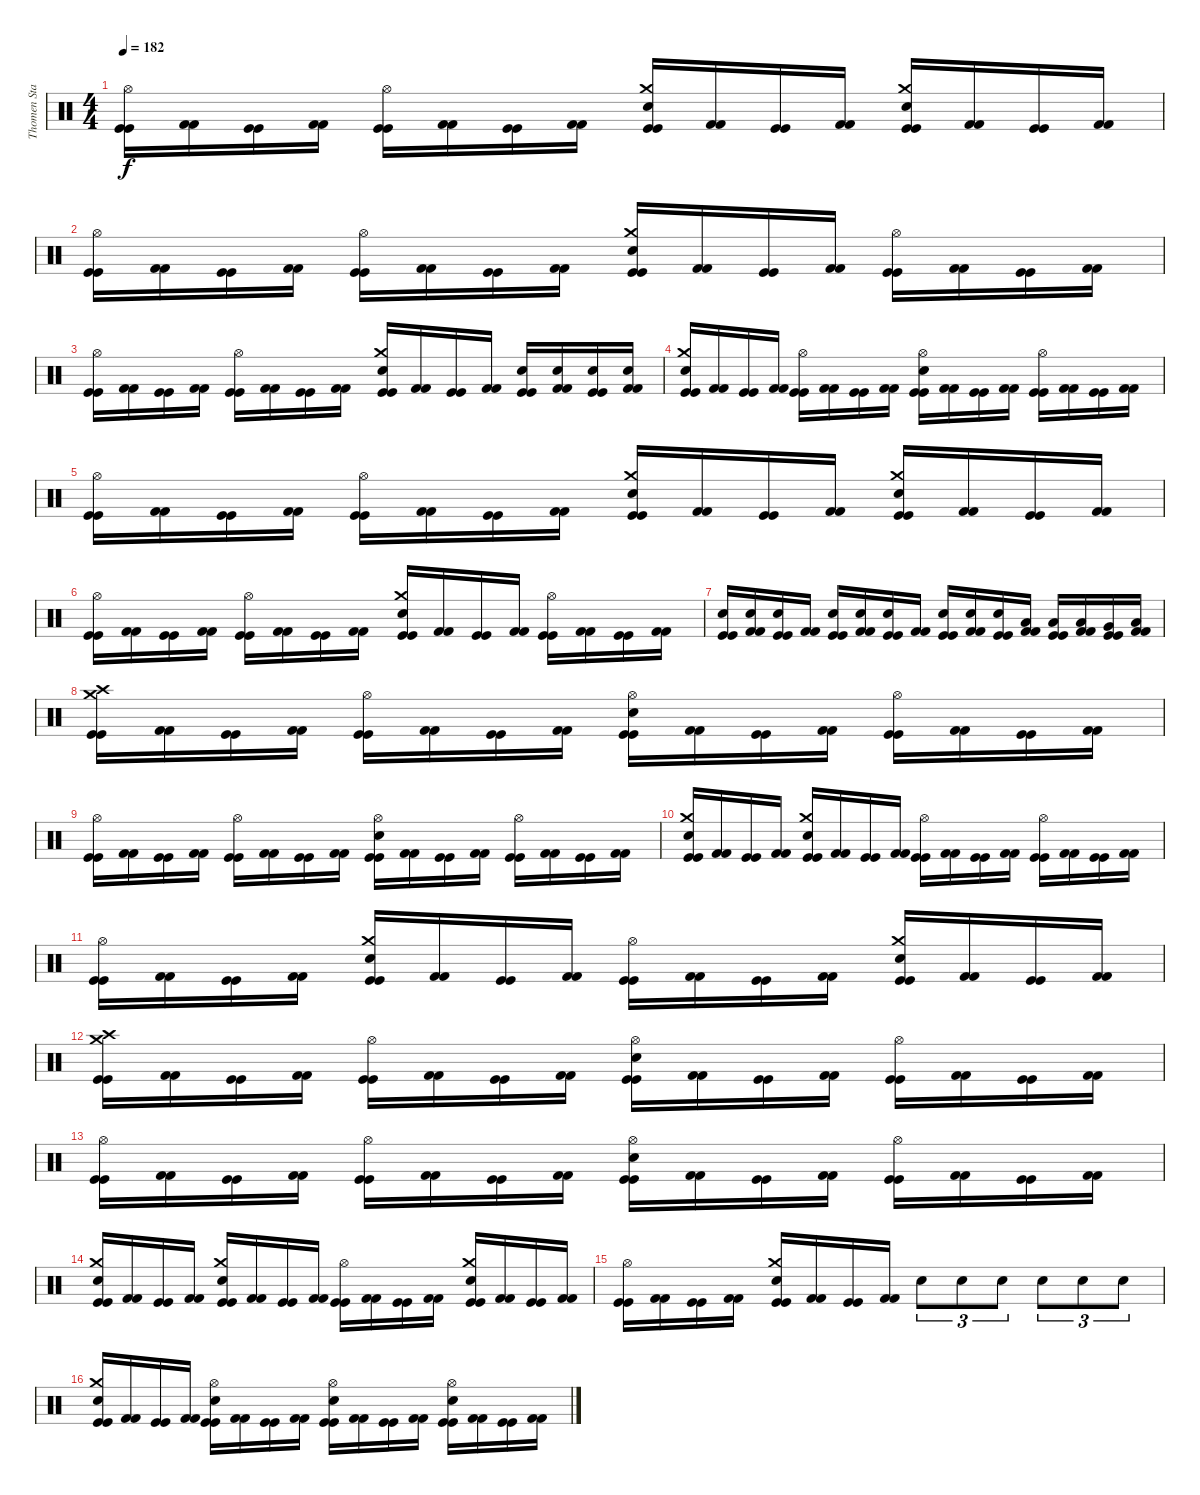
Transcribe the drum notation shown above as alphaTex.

\track ("Thomen Stauch" "Thomen Sta") {instrument percussion}
\staff {score}
\articulation defaults
\ts (4 4)
\tempo 182
\clef neutral
\ks c
("Hi-Hat (open)" "Kick (hit)" "Kick (hit)").16{dy f} ("Kick (hit) 2" "Kick (hit) 2").16 ("Kick (hit)" "Kick (hit)").16 ("Kick (hit) 2" "Kick (hit) 2").16 ("Hi-Hat (open)" "Kick (hit)" "Kick (hit)").16 ("Kick (hit) 2" "Kick (hit) 2").16 ("Kick (hit)" "Kick (hit)").16 ("Kick (hit) 2" "Kick (hit) 2").16 ("Crash medium (hit)" "Snare (hit) 2" "Kick (hit)" "Kick (hit)").16 ("Kick (hit) 2" "Kick (hit) 2").16 ("Kick (hit)" "Kick (hit)").16 ("Kick (hit) 2" "Kick (hit) 2").16 ("Crash medium (hit)" "Snare (hit) 2" "Kick (hit)" "Kick (hit)").16 ("Kick (hit) 2" "Kick (hit) 2").16 ("Kick (hit)" "Kick (hit)").16 ("Kick (hit) 2" "Kick (hit) 2").16 |
("Hi-Hat (open)" "Kick (hit)" "Kick (hit)").16 ("Kick (hit) 2" "Kick (hit) 2").16 ("Kick (hit)" "Kick (hit)").16 ("Kick (hit) 2" "Kick (hit) 2").16 ("Hi-Hat (open)" "Kick (hit)" "Kick (hit)").16 ("Kick (hit) 2" "Kick (hit) 2").16 ("Kick (hit)" "Kick (hit)").16 ("Kick (hit) 2" "Kick (hit) 2").16 ("Crash medium (hit)" "Snare (hit) 2" "Kick (hit)" "Kick (hit)").16 ("Kick (hit) 2" "Kick (hit) 2").16 ("Kick (hit)" "Kick (hit)").16 ("Kick (hit) 2" "Kick (hit) 2").16 ("Hi-Hat (open)" "Kick (hit)" "Kick (hit)").16 ("Kick (hit) 2" "Kick (hit) 2").16 ("Kick (hit)" "Kick (hit)").16 ("Kick (hit) 2" "Kick (hit) 2").16 |
("Hi-Hat (open)" "Kick (hit)" "Kick (hit)").16 ("Kick (hit) 2" "Kick (hit) 2").16 ("Kick (hit)" "Kick (hit)").16 ("Kick (hit) 2" "Kick (hit) 2").16 ("Hi-Hat (open)" "Kick (hit)" "Kick (hit)").16 ("Kick (hit) 2" "Kick (hit) 2").16 ("Kick (hit)" "Kick (hit)").16 ("Kick (hit) 2" "Kick (hit) 2").16 ("Crash medium (hit)" "Snare (hit) 2" "Kick (hit)" "Kick (hit)").16 ("Kick (hit) 2" "Kick (hit) 2").16 ("Kick (hit)" "Kick (hit)").16 ("Kick (hit) 2" "Kick (hit) 2").16 ("Snare (hit) 2" "Kick (hit)" "Kick (hit)").16 ("Snare (hit) 2" "Kick (hit) 2" "Kick (hit) 2").16 ("Snare (hit) 2" "Kick (hit)" "Kick (hit)").16 ("Snare (hit) 2" "Kick (hit) 2" "Kick (hit) 2").16 |
("Crash medium (hit)" "Snare (hit) 2" "Kick (hit)" "Kick (hit)").16 ("Kick (hit) 2" "Kick (hit) 2").16 ("Kick (hit)" "Kick (hit)").16 ("Kick (hit) 2" "Kick (hit) 2").16 ("Hi-Hat (open)" "Kick (hit)" "Kick (hit)").16 ("Kick (hit) 2" "Kick (hit) 2").16 ("Kick (hit)" "Kick (hit)").16 ("Kick (hit) 2" "Kick (hit) 2").16 ("Hi-Hat (open)" "Snare (hit) 2" "Kick (hit)" "Kick (hit)").16 ("Kick (hit) 2" "Kick (hit) 2").16 ("Kick (hit)" "Kick (hit)").16 ("Kick (hit) 2" "Kick (hit) 2").16 ("Hi-Hat (open)" "Kick (hit)" "Kick (hit)").16 ("Kick (hit) 2" "Kick (hit) 2").16 ("Kick (hit)" "Kick (hit)").16 ("Kick (hit) 2" "Kick (hit) 2").16 |
("Hi-Hat (open)" "Kick (hit)" "Kick (hit)").16 ("Kick (hit) 2" "Kick (hit) 2").16 ("Kick (hit)" "Kick (hit)").16 ("Kick (hit) 2" "Kick (hit) 2").16 ("Hi-Hat (open)" "Kick (hit)" "Kick (hit)").16 ("Kick (hit) 2" "Kick (hit) 2").16 ("Kick (hit)" "Kick (hit)").16 ("Kick (hit) 2" "Kick (hit) 2").16 ("Crash medium (hit)" "Snare (hit) 2" "Kick (hit)" "Kick (hit)").16 ("Kick (hit) 2" "Kick (hit) 2").16 ("Kick (hit)" "Kick (hit)").16 ("Kick (hit) 2" "Kick (hit) 2").16 ("Crash medium (hit)" "Snare (hit) 2" "Kick (hit)" "Kick (hit)").16 ("Kick (hit) 2" "Kick (hit) 2").16 ("Kick (hit)" "Kick (hit)").16 ("Kick (hit) 2" "Kick (hit) 2").16 |
("Hi-Hat (open)" "Kick (hit)" "Kick (hit)").16 ("Kick (hit) 2" "Kick (hit) 2").16 ("Kick (hit)" "Kick (hit)").16 ("Kick (hit) 2" "Kick (hit) 2").16 ("Hi-Hat (open)" "Kick (hit)" "Kick (hit)").16 ("Kick (hit) 2" "Kick (hit) 2").16 ("Kick (hit)" "Kick (hit)").16 ("Kick (hit) 2" "Kick (hit) 2").16 ("Crash medium (hit)" "Snare (hit) 2" "Kick (hit)" "Kick (hit)").16 ("Kick (hit) 2" "Kick (hit) 2").16 ("Kick (hit)" "Kick (hit)").16 ("Kick (hit) 2" "Kick (hit) 2").16 ("Hi-Hat (open)" "Kick (hit)" "Kick (hit)").16 ("Kick (hit) 2" "Kick (hit) 2").16 ("Kick (hit)" "Kick (hit)").16 ("Kick (hit) 2" "Kick (hit) 2").16 |
("Snare (hit) 2" "Kick (hit)" "Kick (hit)").16 ("Snare (hit) 2" "Kick (hit) 2" "Kick (hit) 2").16 ("Snare (hit) 2" "Kick (hit)" "Kick (hit)").16 ("Kick (hit) 2" "Kick (hit) 2").16 ("Snare (hit) 2" "Kick (hit)" "Kick (hit)").16 ("Snare (hit) 2" "Kick (hit) 2" "Kick (hit) 2").16 ("Snare (hit) 2" "Kick (hit)" "Kick (hit)").16 ("Kick (hit) 2" "Kick (hit) 2").16 ("Snare (hit) 2" "Kick (hit)" "Kick (hit)").16 ("Snare (hit) 2" "Kick (hit) 2" "Kick (hit) 2").16 ("Snare (hit) 2" "Kick (hit)" "Kick (hit)").16 ("Low Tom (hit)" "Kick (hit) 2" "Kick (hit) 2").16 ("Low Tom (hit)" "Kick (hit)" "Kick (hit)").16 ("Low Tom (hit)" "Kick (hit) 2" "Kick (hit) 2").16 ("Very Low Tom (hit)" "Kick (hit)" "Kick (hit)").16 ("Low Floor Tom (hit)" "Kick (hit) 2" "Kick (hit) 2").16 |
("Crash medium (hit)" "Crash high (hit)" "Kick (hit)" "Kick (hit)").16 ("Kick (hit) 2" "Kick (hit) 2").16 ("Kick (hit)" "Kick (hit)").16 ("Kick (hit) 2" "Kick (hit) 2").16 ("Hi-Hat (open)" "Kick (hit)" "Kick (hit)").16 ("Kick (hit) 2" "Kick (hit) 2").16 ("Kick (hit)" "Kick (hit)").16 ("Kick (hit) 2" "Kick (hit) 2").16 ("Hi-Hat (open)" "Snare (hit) 2" "Kick (hit)" "Kick (hit)").16 ("Kick (hit) 2" "Kick (hit) 2").16 ("Kick (hit)" "Kick (hit)").16 ("Kick (hit) 2" "Kick (hit) 2").16 ("Hi-Hat (open)" "Kick (hit)" "Kick (hit)").16 ("Kick (hit) 2" "Kick (hit) 2").16 ("Kick (hit)" "Kick (hit)").16 ("Kick (hit) 2" "Kick (hit) 2").16 |
("Hi-Hat (open)" "Kick (hit)" "Kick (hit)").16 ("Kick (hit) 2" "Kick (hit) 2").16 ("Kick (hit)" "Kick (hit)").16 ("Kick (hit) 2" "Kick (hit) 2").16 ("Hi-Hat (open)" "Kick (hit)" "Kick (hit)").16 ("Kick (hit) 2" "Kick (hit) 2").16 ("Kick (hit)" "Kick (hit)").16 ("Kick (hit) 2" "Kick (hit) 2").16 ("Hi-Hat (open)" "Snare (hit) 2" "Kick (hit)" "Kick (hit)").16 ("Kick (hit) 2" "Kick (hit) 2").16 ("Kick (hit)" "Kick (hit)").16 ("Kick (hit) 2" "Kick (hit) 2").16 ("Hi-Hat (open)" "Kick (hit)" "Kick (hit)").16 ("Kick (hit) 2" "Kick (hit) 2").16 ("Kick (hit)" "Kick (hit)").16 ("Kick (hit) 2" "Kick (hit) 2").16 |
("Crash medium (hit)" "Snare (hit) 2" "Kick (hit)" "Kick (hit)").16 ("Kick (hit) 2" "Kick (hit) 2").16 ("Kick (hit)" "Kick (hit)").16 ("Kick (hit) 2" "Kick (hit) 2").16 ("Crash medium (hit)" "Snare (hit) 2" "Kick (hit)" "Kick (hit)").16 ("Kick (hit) 2" "Kick (hit) 2").16 ("Kick (hit)" "Kick (hit)").16 ("Kick (hit) 2" "Kick (hit) 2").16 ("Hi-Hat (open)" "Kick (hit)" "Kick (hit)").16 ("Kick (hit) 2" "Kick (hit) 2").16 ("Kick (hit)" "Kick (hit)").16 ("Kick (hit) 2" "Kick (hit) 2").16 ("Hi-Hat (open)" "Kick (hit)" "Kick (hit)").16 ("Kick (hit) 2" "Kick (hit) 2").16 ("Kick (hit)" "Kick (hit)").16 ("Kick (hit) 2" "Kick (hit) 2").16 |
("Hi-Hat (open)" "Kick (hit)" "Kick (hit)").16 ("Kick (hit) 2" "Kick (hit) 2").16 ("Kick (hit)" "Kick (hit)").16 ("Kick (hit) 2" "Kick (hit) 2").16 ("Crash medium (hit)" "Snare (hit) 2" "Kick (hit)" "Kick (hit)").16 ("Kick (hit) 2" "Kick (hit) 2").16 ("Kick (hit)" "Kick (hit)").16 ("Kick (hit) 2" "Kick (hit) 2").16 ("Hi-Hat (open)" "Kick (hit)" "Kick (hit)").16 ("Kick (hit) 2" "Kick (hit) 2").16 ("Kick (hit)" "Kick (hit)").16 ("Kick (hit) 2" "Kick (hit) 2").16 ("Crash medium (hit)" "Snare (hit) 2" "Kick (hit)" "Kick (hit)").16 ("Kick (hit) 2" "Kick (hit) 2").16 ("Kick (hit)" "Kick (hit)").16 ("Kick (hit) 2" "Kick (hit) 2").16 |
("Crash medium (hit)" "Crash high (hit)" "Kick (hit)" "Kick (hit)").16 ("Kick (hit) 2" "Kick (hit) 2").16 ("Kick (hit)" "Kick (hit)").16 ("Kick (hit) 2" "Kick (hit) 2").16 ("Hi-Hat (open)" "Kick (hit)" "Kick (hit)").16 ("Kick (hit) 2" "Kick (hit) 2").16 ("Kick (hit)" "Kick (hit)").16 ("Kick (hit) 2" "Kick (hit) 2").16 ("Hi-Hat (open)" "Snare (hit) 2" "Kick (hit)" "Kick (hit)").16 ("Kick (hit) 2" "Kick (hit) 2").16 ("Kick (hit)" "Kick (hit)").16 ("Kick (hit) 2" "Kick (hit) 2").16 ("Hi-Hat (open)" "Kick (hit)" "Kick (hit)").16 ("Kick (hit) 2" "Kick (hit) 2").16 ("Kick (hit)" "Kick (hit)").16 ("Kick (hit) 2" "Kick (hit) 2").16 |
("Hi-Hat (open)" "Kick (hit)" "Kick (hit)").16 ("Kick (hit) 2" "Kick (hit) 2").16 ("Kick (hit)" "Kick (hit)").16 ("Kick (hit) 2" "Kick (hit) 2").16 ("Hi-Hat (open)" "Kick (hit)" "Kick (hit)").16 ("Kick (hit) 2" "Kick (hit) 2").16 ("Kick (hit)" "Kick (hit)").16 ("Kick (hit) 2" "Kick (hit) 2").16 ("Hi-Hat (open)" "Snare (hit) 2" "Kick (hit)" "Kick (hit)").16 ("Kick (hit) 2" "Kick (hit) 2").16 ("Kick (hit)" "Kick (hit)").16 ("Kick (hit) 2" "Kick (hit) 2").16 ("Hi-Hat (open)" "Kick (hit)" "Kick (hit)").16 ("Kick (hit) 2" "Kick (hit) 2").16 ("Kick (hit)" "Kick (hit)").16 ("Kick (hit) 2" "Kick (hit) 2").16 |
("Crash medium (hit)" "Snare (hit) 2" "Kick (hit)" "Kick (hit)").16 ("Kick (hit) 2" "Kick (hit) 2").16 ("Kick (hit)" "Kick (hit)").16 ("Kick (hit) 2" "Kick (hit) 2").16 ("Crash medium (hit)" "Snare (hit) 2" "Kick (hit)" "Kick (hit)").16 ("Kick (hit) 2" "Kick (hit) 2").16 ("Kick (hit)" "Kick (hit)").16 ("Kick (hit) 2" "Kick (hit) 2").16 ("Hi-Hat (open)" "Kick (hit)" "Kick (hit)").16 ("Kick (hit) 2" "Kick (hit) 2").16 ("Kick (hit)" "Kick (hit)").16 ("Kick (hit) 2" "Kick (hit) 2").16 ("Crash medium (hit)" "Snare (hit) 2" "Kick (hit)" "Kick (hit)").16 ("Kick (hit) 2" "Kick (hit) 2").16 ("Kick (hit)" "Kick (hit)").16 ("Kick (hit) 2" "Kick (hit) 2").16 |
("Hi-Hat (open)" "Kick (hit)" "Kick (hit)").16 ("Kick (hit) 2" "Kick (hit) 2").16 ("Kick (hit)" "Kick (hit)").16 ("Kick (hit) 2" "Kick (hit) 2").16 ("Crash medium (hit)" "Snare (hit) 2" "Kick (hit)" "Kick (hit)").16 ("Kick (hit) 2" "Kick (hit) 2").16 ("Kick (hit)" "Kick (hit)").16 ("Kick (hit) 2" "Kick (hit) 2").16 "Snare (hit) 2".8{tu (3 2)} "Snare (hit) 2".8{tu (3 2)} "Snare (hit) 2".8{tu (3 2)} "Snare (hit) 2".8{tu (3 2)} "Snare (hit) 2".8{tu (3 2)} "Snare (hit) 2".8{tu (3 2)} |
("Crash medium (hit)" "Snare (hit) 2" "Kick (hit)" "Kick (hit)").16 ("Kick (hit) 2" "Kick (hit) 2").16 ("Kick (hit)" "Kick (hit)").16 ("Kick (hit) 2" "Kick (hit) 2").16 ("Hi-Hat (open)" "Snare (hit) 2" "Kick (hit)" "Kick (hit)").16 ("Kick (hit) 2" "Kick (hit) 2").16 ("Kick (hit)" "Kick (hit)").16 ("Kick (hit) 2" "Kick (hit) 2").16 ("Hi-Hat (open)" "Snare (hit) 2" "Kick (hit)" "Kick (hit)").16 ("Kick (hit) 2" "Kick (hit) 2").16 ("Kick (hit)" "Kick (hit)").16 ("Kick (hit) 2" "Kick (hit) 2").16 ("Hi-Hat (open)" "Snare (hit) 2" "Kick (hit)" "Kick (hit)").16 ("Kick (hit) 2" "Kick (hit) 2").16 ("Kick (hit)" "Kick (hit)").16 ("Kick (hit) 2" "Kick (hit) 2").16
